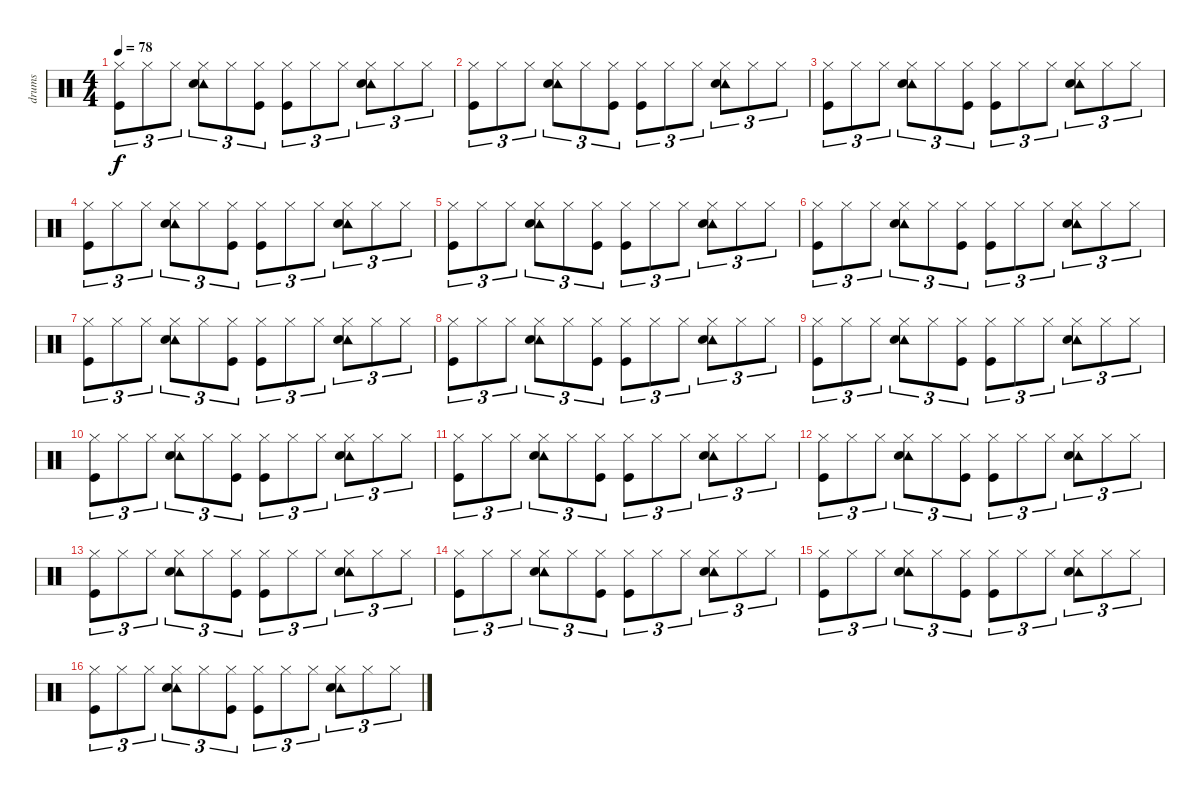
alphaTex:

\track ("drums" "drums") {instrument percussion}
\staff {score}
\articulation defaults
\ts (4 4)
\tempo 78
\clef neutral
\ks c
("Hi-Hat (closed)" "Kick (hit)").8{tu (3 2) dy f} "Hi-Hat (closed)".8{tu (3 2)} "Hi-Hat (closed)".8{tu (3 2)} ("Hi-Hat (closed)" "Tambourine (hit)" "Electric Snare (hit)").8{tu (3 2)} "Hi-Hat (closed)".8{tu (3 2)} ("Hi-Hat (closed)" "Kick (hit)").8{tu (3 2)} ("Hi-Hat (closed)" "Kick (hit)").8{tu (3 2)} "Hi-Hat (closed)".8{tu (3 2)} "Hi-Hat (closed)".8{tu (3 2)} ("Hi-Hat (closed)" "Tambourine (hit)" "Electric Snare (hit)").8{tu (3 2)} "Hi-Hat (closed)".8{tu (3 2)} "Hi-Hat (closed)".8{tu (3 2)} |
("Hi-Hat (closed)" "Kick (hit)").8{tu (3 2)} "Hi-Hat (closed)".8{tu (3 2)} "Hi-Hat (closed)".8{tu (3 2)} ("Hi-Hat (closed)" "Tambourine (hit)" "Electric Snare (hit)").8{tu (3 2)} "Hi-Hat (closed)".8{tu (3 2)} ("Hi-Hat (closed)" "Kick (hit)").8{tu (3 2)} ("Hi-Hat (closed)" "Kick (hit)").8{tu (3 2)} "Hi-Hat (closed)".8{tu (3 2)} "Hi-Hat (closed)".8{tu (3 2)} ("Hi-Hat (closed)" "Tambourine (hit)" "Electric Snare (hit)").8{tu (3 2)} "Hi-Hat (closed)".8{tu (3 2)} "Hi-Hat (closed)".8{tu (3 2)} |
("Hi-Hat (closed)" "Kick (hit)").8{tu (3 2)} "Hi-Hat (closed)".8{tu (3 2)} "Hi-Hat (closed)".8{tu (3 2)} ("Hi-Hat (closed)" "Tambourine (hit)" "Electric Snare (hit)").8{tu (3 2)} "Hi-Hat (closed)".8{tu (3 2)} ("Hi-Hat (closed)" "Kick (hit)").8{tu (3 2)} ("Hi-Hat (closed)" "Kick (hit)").8{tu (3 2)} "Hi-Hat (closed)".8{tu (3 2)} "Hi-Hat (closed)".8{tu (3 2)} ("Hi-Hat (closed)" "Tambourine (hit)" "Electric Snare (hit)").8{tu (3 2)} "Hi-Hat (closed)".8{tu (3 2)} "Hi-Hat (closed)".8{tu (3 2)} |
("Hi-Hat (closed)" "Kick (hit)").8{tu (3 2)} "Hi-Hat (closed)".8{tu (3 2)} "Hi-Hat (closed)".8{tu (3 2)} ("Hi-Hat (closed)" "Tambourine (hit)" "Electric Snare (hit)").8{tu (3 2)} "Hi-Hat (closed)".8{tu (3 2)} ("Hi-Hat (closed)" "Kick (hit)").8{tu (3 2)} ("Hi-Hat (closed)" "Kick (hit)").8{tu (3 2)} "Hi-Hat (closed)".8{tu (3 2)} "Hi-Hat (closed)".8{tu (3 2)} ("Hi-Hat (closed)" "Tambourine (hit)" "Electric Snare (hit)").8{tu (3 2)} "Hi-Hat (closed)".8{tu (3 2)} "Hi-Hat (closed)".8{tu (3 2)} |
("Hi-Hat (closed)" "Kick (hit)").8{tu (3 2)} "Hi-Hat (closed)".8{tu (3 2)} "Hi-Hat (closed)".8{tu (3 2)} ("Hi-Hat (closed)" "Tambourine (hit)" "Electric Snare (hit)").8{tu (3 2)} "Hi-Hat (closed)".8{tu (3 2)} ("Hi-Hat (closed)" "Kick (hit)").8{tu (3 2)} ("Hi-Hat (closed)" "Kick (hit)").8{tu (3 2)} "Hi-Hat (closed)".8{tu (3 2)} "Hi-Hat (closed)".8{tu (3 2)} ("Hi-Hat (closed)" "Tambourine (hit)" "Electric Snare (hit)").8{tu (3 2)} "Hi-Hat (closed)".8{tu (3 2)} "Hi-Hat (closed)".8{tu (3 2)} |
("Hi-Hat (closed)" "Kick (hit)").8{tu (3 2)} "Hi-Hat (closed)".8{tu (3 2)} "Hi-Hat (closed)".8{tu (3 2)} ("Hi-Hat (closed)" "Tambourine (hit)" "Electric Snare (hit)").8{tu (3 2)} "Hi-Hat (closed)".8{tu (3 2)} ("Hi-Hat (closed)" "Kick (hit)").8{tu (3 2)} ("Hi-Hat (closed)" "Kick (hit)").8{tu (3 2)} "Hi-Hat (closed)".8{tu (3 2)} "Hi-Hat (closed)".8{tu (3 2)} ("Hi-Hat (closed)" "Tambourine (hit)" "Electric Snare (hit)").8{tu (3 2)} "Hi-Hat (closed)".8{tu (3 2)} "Hi-Hat (closed)".8{tu (3 2)} |
("Hi-Hat (closed)" "Kick (hit)").8{tu (3 2)} "Hi-Hat (closed)".8{tu (3 2)} "Hi-Hat (closed)".8{tu (3 2)} ("Hi-Hat (closed)" "Tambourine (hit)" "Electric Snare (hit)").8{tu (3 2)} "Hi-Hat (closed)".8{tu (3 2)} ("Hi-Hat (closed)" "Kick (hit)").8{tu (3 2)} ("Hi-Hat (closed)" "Kick (hit)").8{tu (3 2)} "Hi-Hat (closed)".8{tu (3 2)} "Hi-Hat (closed)".8{tu (3 2)} ("Hi-Hat (closed)" "Tambourine (hit)" "Electric Snare (hit)").8{tu (3 2)} "Hi-Hat (closed)".8{tu (3 2)} "Hi-Hat (closed)".8{tu (3 2)} |
("Hi-Hat (closed)" "Kick (hit)").8{tu (3 2)} "Hi-Hat (closed)".8{tu (3 2)} "Hi-Hat (closed)".8{tu (3 2)} ("Hi-Hat (closed)" "Tambourine (hit)" "Electric Snare (hit)").8{tu (3 2)} "Hi-Hat (closed)".8{tu (3 2)} ("Hi-Hat (closed)" "Kick (hit)").8{tu (3 2)} ("Hi-Hat (closed)" "Kick (hit)").8{tu (3 2)} "Hi-Hat (closed)".8{tu (3 2)} "Hi-Hat (closed)".8{tu (3 2)} ("Hi-Hat (closed)" "Tambourine (hit)" "Electric Snare (hit)").8{tu (3 2)} "Hi-Hat (closed)".8{tu (3 2)} "Hi-Hat (closed)".8{tu (3 2)} |
("Hi-Hat (closed)" "Kick (hit)").8{tu (3 2)} "Hi-Hat (closed)".8{tu (3 2)} "Hi-Hat (closed)".8{tu (3 2)} ("Hi-Hat (closed)" "Tambourine (hit)" "Electric Snare (hit)").8{tu (3 2)} "Hi-Hat (closed)".8{tu (3 2)} ("Hi-Hat (closed)" "Kick (hit)").8{tu (3 2)} ("Hi-Hat (closed)" "Kick (hit)").8{tu (3 2)} "Hi-Hat (closed)".8{tu (3 2)} "Hi-Hat (closed)".8{tu (3 2)} ("Hi-Hat (closed)" "Tambourine (hit)" "Electric Snare (hit)").8{tu (3 2)} "Hi-Hat (closed)".8{tu (3 2)} "Hi-Hat (closed)".8{tu (3 2)} |
("Hi-Hat (closed)" "Kick (hit)").8{tu (3 2)} "Hi-Hat (closed)".8{tu (3 2)} "Hi-Hat (closed)".8{tu (3 2)} ("Hi-Hat (closed)" "Tambourine (hit)" "Electric Snare (hit)").8{tu (3 2)} "Hi-Hat (closed)".8{tu (3 2)} ("Hi-Hat (closed)" "Kick (hit)").8{tu (3 2)} ("Hi-Hat (closed)" "Kick (hit)").8{tu (3 2)} "Hi-Hat (closed)".8{tu (3 2)} "Hi-Hat (closed)".8{tu (3 2)} ("Hi-Hat (closed)" "Tambourine (hit)" "Electric Snare (hit)").8{tu (3 2)} "Hi-Hat (closed)".8{tu (3 2)} "Hi-Hat (closed)".8{tu (3 2)} |
("Hi-Hat (closed)" "Kick (hit)").8{tu (3 2)} "Hi-Hat (closed)".8{tu (3 2)} "Hi-Hat (closed)".8{tu (3 2)} ("Hi-Hat (closed)" "Tambourine (hit)" "Electric Snare (hit)").8{tu (3 2)} "Hi-Hat (closed)".8{tu (3 2)} ("Hi-Hat (closed)" "Kick (hit)").8{tu (3 2)} ("Hi-Hat (closed)" "Kick (hit)").8{tu (3 2)} "Hi-Hat (closed)".8{tu (3 2)} "Hi-Hat (closed)".8{tu (3 2)} ("Hi-Hat (closed)" "Tambourine (hit)" "Electric Snare (hit)").8{tu (3 2)} "Hi-Hat (closed)".8{tu (3 2)} "Hi-Hat (closed)".8{tu (3 2)} |
("Hi-Hat (closed)" "Kick (hit)").8{tu (3 2)} "Hi-Hat (closed)".8{tu (3 2)} "Hi-Hat (closed)".8{tu (3 2)} ("Hi-Hat (closed)" "Tambourine (hit)" "Electric Snare (hit)").8{tu (3 2)} "Hi-Hat (closed)".8{tu (3 2)} ("Hi-Hat (closed)" "Kick (hit)").8{tu (3 2)} ("Hi-Hat (closed)" "Kick (hit)").8{tu (3 2)} "Hi-Hat (closed)".8{tu (3 2)} "Hi-Hat (closed)".8{tu (3 2)} ("Hi-Hat (closed)" "Tambourine (hit)" "Electric Snare (hit)").8{tu (3 2)} "Hi-Hat (closed)".8{tu (3 2)} "Hi-Hat (closed)".8{tu (3 2)} |
("Hi-Hat (closed)" "Kick (hit)").8{tu (3 2)} "Hi-Hat (closed)".8{tu (3 2)} "Hi-Hat (closed)".8{tu (3 2)} ("Hi-Hat (closed)" "Tambourine (hit)" "Electric Snare (hit)").8{tu (3 2)} "Hi-Hat (closed)".8{tu (3 2)} ("Hi-Hat (closed)" "Kick (hit)").8{tu (3 2)} ("Hi-Hat (closed)" "Kick (hit)").8{tu (3 2)} "Hi-Hat (closed)".8{tu (3 2)} "Hi-Hat (closed)".8{tu (3 2)} ("Hi-Hat (closed)" "Tambourine (hit)" "Electric Snare (hit)").8{tu (3 2)} "Hi-Hat (closed)".8{tu (3 2)} "Hi-Hat (closed)".8{tu (3 2)} |
("Hi-Hat (closed)" "Kick (hit)").8{tu (3 2)} "Hi-Hat (closed)".8{tu (3 2)} "Hi-Hat (closed)".8{tu (3 2)} ("Hi-Hat (closed)" "Tambourine (hit)" "Electric Snare (hit)").8{tu (3 2)} "Hi-Hat (closed)".8{tu (3 2)} ("Hi-Hat (closed)" "Kick (hit)").8{tu (3 2)} ("Hi-Hat (closed)" "Kick (hit)").8{tu (3 2)} "Hi-Hat (closed)".8{tu (3 2)} "Hi-Hat (closed)".8{tu (3 2)} ("Hi-Hat (closed)" "Tambourine (hit)" "Electric Snare (hit)").8{tu (3 2)} "Hi-Hat (closed)".8{tu (3 2)} "Hi-Hat (closed)".8{tu (3 2)} |
("Hi-Hat (closed)" "Kick (hit)").8{tu (3 2)} "Hi-Hat (closed)".8{tu (3 2)} "Hi-Hat (closed)".8{tu (3 2)} ("Hi-Hat (closed)" "Tambourine (hit)" "Electric Snare (hit)").8{tu (3 2)} "Hi-Hat (closed)".8{tu (3 2)} ("Hi-Hat (closed)" "Kick (hit)").8{tu (3 2)} ("Hi-Hat (closed)" "Kick (hit)").8{tu (3 2)} "Hi-Hat (closed)".8{tu (3 2)} "Hi-Hat (closed)".8{tu (3 2)} ("Hi-Hat (closed)" "Tambourine (hit)" "Electric Snare (hit)").8{tu (3 2)} "Hi-Hat (closed)".8{tu (3 2)} "Hi-Hat (closed)".8{tu (3 2)} |
("Hi-Hat (closed)" "Kick (hit)").8{tu (3 2)} "Hi-Hat (closed)".8{tu (3 2)} "Hi-Hat (closed)".8{tu (3 2)} ("Hi-Hat (closed)" "Tambourine (hit)" "Electric Snare (hit)").8{tu (3 2)} "Hi-Hat (closed)".8{tu (3 2)} ("Hi-Hat (closed)" "Kick (hit)").8{tu (3 2)} ("Hi-Hat (closed)" "Kick (hit)").8{tu (3 2)} "Hi-Hat (closed)".8{tu (3 2)} "Hi-Hat (closed)".8{tu (3 2)} ("Hi-Hat (closed)" "Tambourine (hit)" "Electric Snare (hit)").8{tu (3 2)} "Hi-Hat (closed)".8{tu (3 2)} "Hi-Hat (closed)".8{tu (3 2)}
